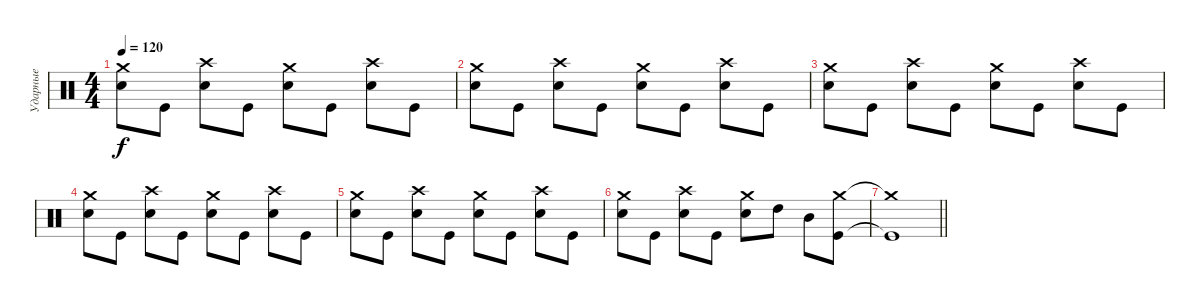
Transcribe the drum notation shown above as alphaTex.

\track ("Ударные" "Ударные") {instrument percussion}
\staff {score}
\articulation defaults
\ts (4 4)
\tempo 120
\clef neutral
\ks c
("Crash medium (hit)" "Electric Snare (hit)").8{dy f} "Kick (hit)".8 ("Crash high (hit)" "Electric Snare (hit)").8 "Kick (hit)".8 ("Crash medium (hit)" "Electric Snare (hit)").8 "Kick (hit)".8 ("Crash high (hit)" "Electric Snare (hit)").8 "Kick (hit)".8 |
("Crash medium (hit)" "Electric Snare (hit)").8 "Kick (hit)".8 ("Crash high (hit)" "Electric Snare (hit)").8 "Kick (hit)".8 ("Crash medium (hit)" "Electric Snare (hit)").8 "Kick (hit)".8 ("Crash high (hit)" "Electric Snare (hit)").8 "Kick (hit)".8 |
("Crash medium (hit)" "Electric Snare (hit)").8 "Kick (hit)".8 ("Crash high (hit)" "Electric Snare (hit)").8 "Kick (hit)".8 ("Crash medium (hit)" "Electric Snare (hit)").8 "Kick (hit)".8 ("Crash high (hit)" "Electric Snare (hit)").8 "Kick (hit)".8 |
("Crash medium (hit)" "Electric Snare (hit)").8 "Kick (hit)".8 ("Crash high (hit)" "Electric Snare (hit)").8 "Kick (hit)".8 ("Crash medium (hit)" "Electric Snare (hit)").8 "Kick (hit)".8 ("Crash high (hit)" "Electric Snare (hit)").8 "Kick (hit)".8 |
("Crash medium (hit)" "Electric Snare (hit)").8 "Kick (hit)".8 ("Crash high (hit)" "Electric Snare (hit)").8 "Kick (hit)".8 ("Crash medium (hit)" "Electric Snare (hit)").8 "Kick (hit)".8 ("Crash high (hit)" "Electric Snare (hit)").8 "Kick (hit)".8 |
("Crash medium (hit)" "Electric Snare (hit)").8 "Kick (hit)".8 ("Crash high (hit)" "Electric Snare (hit)").8 "Kick (hit)".8 ("Crash medium (hit)" "Electric Snare (hit)").8 "High Tom (hit)".8 "Mid Tom (hit)".8 ("Crash medium (hit)" "Kick (hit)").8 |
\barLineRight lightlight
("Crash medium (hit)"{t} "Kick (hit)"{t}).1
